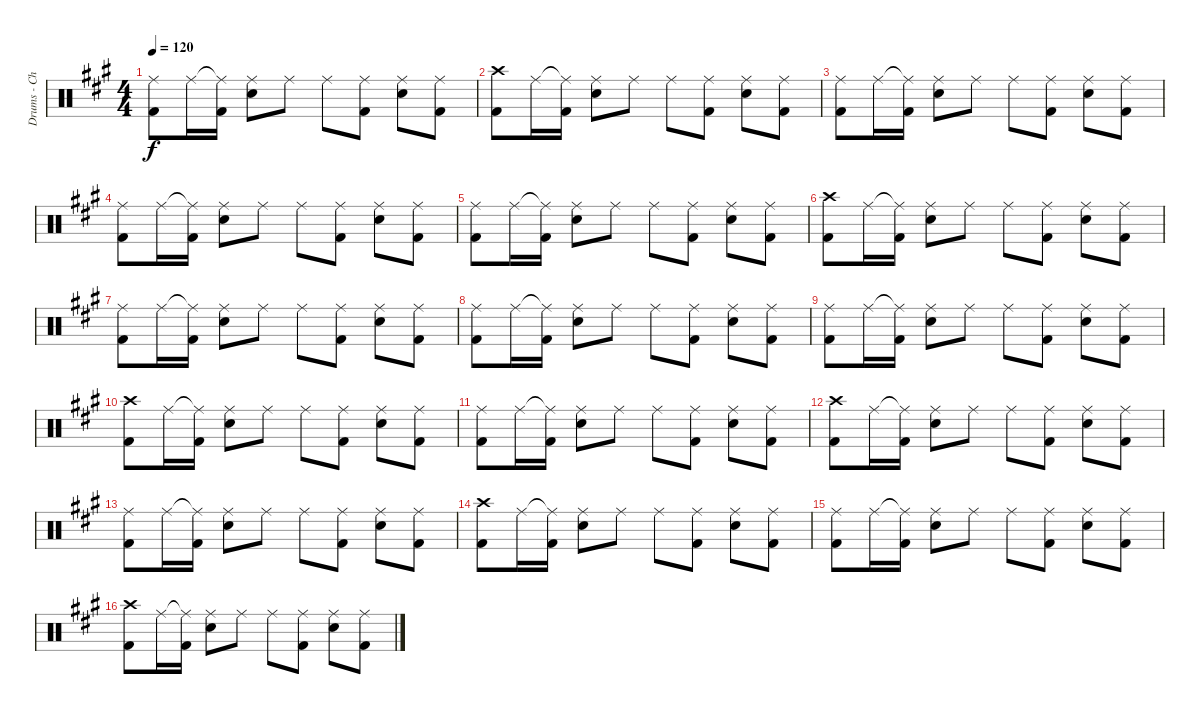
\track ("Drums - Chad S" "Drums - Ch") {instrument percussion}
\staff {score}
\articulation defaults
\ts (4 4)
\tempo 120
\clef neutral
\ks f#minor
("Ride (middle)" "Kick (hit) 2").8{dy f} "Ride (middle)".16 ("Ride (middle)"{t} "Kick (hit) 2").16 ("Ride (middle)" "Snare (hit) 2").8 "Ride (middle)".8 "Ride (middle)".8 ("Ride (middle)" "Kick (hit) 2").8 ("Ride (middle)" "Snare (hit) 2").8 ("Ride (middle)" "Kick (hit) 2").8 |
("Crash high (hit)" "Kick (hit) 2").8 "Ride (middle)".16 ("Ride (middle)"{t} "Kick (hit) 2").16 ("Ride (middle)" "Snare (hit) 2").8 "Ride (middle)".8 "Ride (middle)".8 ("Ride (middle)" "Kick (hit) 2").8 ("Ride (middle)" "Snare (hit) 2").8 ("Ride (middle)" "Kick (hit) 2").8 |
("Ride (middle)" "Kick (hit) 2").8 "Ride (middle)".16 ("Ride (middle)"{t} "Kick (hit) 2").16 ("Ride (middle)" "Snare (hit) 2").8 "Ride (middle)".8 "Ride (middle)".8 ("Ride (middle)" "Kick (hit) 2").8 ("Ride (middle)" "Snare (hit) 2").8 ("Ride (middle)" "Kick (hit) 2").8 |
("Ride (middle)" "Kick (hit) 2").8 "Ride (middle)".16 ("Ride (middle)"{t} "Kick (hit) 2").16 ("Ride (middle)" "Snare (hit) 2").8 "Ride (middle)".8 "Ride (middle)".8 ("Ride (middle)" "Kick (hit) 2").8 ("Ride (middle)" "Snare (hit) 2").8 ("Ride (middle)" "Kick (hit) 2").8 |
("Ride (middle)" "Kick (hit) 2").8 "Ride (middle)".16 ("Ride (middle)"{t} "Kick (hit) 2").16 ("Ride (middle)" "Snare (hit) 2").8 "Ride (middle)".8 "Ride (middle)".8 ("Ride (middle)" "Kick (hit) 2").8 ("Ride (middle)" "Snare (hit) 2").8 ("Ride (middle)" "Kick (hit) 2").8 |
("Crash high (hit)" "Kick (hit) 2").8 "Ride (middle)".16 ("Ride (middle)"{t} "Kick (hit) 2").16 ("Ride (middle)" "Snare (hit) 2").8 "Ride (middle)".8 "Ride (middle)".8 ("Ride (middle)" "Kick (hit) 2").8 ("Ride (middle)" "Snare (hit) 2").8 ("Ride (middle)" "Kick (hit) 2").8 |
("Ride (middle)" "Kick (hit) 2").8 "Ride (middle)".16 ("Ride (middle)"{t} "Kick (hit) 2").16 ("Ride (middle)" "Snare (hit) 2").8 "Ride (middle)".8 "Ride (middle)".8 ("Ride (middle)" "Kick (hit) 2").8 ("Ride (middle)" "Snare (hit) 2").8 ("Ride (middle)" "Kick (hit) 2").8 |
("Ride (middle)" "Kick (hit) 2").8 "Ride (middle)".16 ("Ride (middle)"{t} "Kick (hit) 2").16 ("Ride (middle)" "Snare (hit) 2").8 "Ride (middle)".8 "Ride (middle)".8 ("Ride (middle)" "Kick (hit) 2").8 ("Ride (middle)" "Snare (hit) 2").8 ("Ride (middle)" "Kick (hit) 2").8 |
("Ride (middle)" "Kick (hit) 2").8 "Ride (middle)".16 ("Ride (middle)"{t} "Kick (hit) 2").16 ("Ride (middle)" "Snare (hit) 2").8 "Ride (middle)".8 "Ride (middle)".8 ("Ride (middle)" "Kick (hit) 2").8 ("Ride (middle)" "Snare (hit) 2").8 ("Ride (middle)" "Kick (hit) 2").8 |
("Crash high (hit)" "Kick (hit) 2").8 "Ride (middle)".16 ("Ride (middle)"{t} "Kick (hit) 2").16 ("Ride (middle)" "Snare (hit) 2").8 "Ride (middle)".8 "Ride (middle)".8 ("Ride (middle)" "Kick (hit) 2").8 ("Ride (middle)" "Snare (hit) 2").8 ("Ride (middle)" "Kick (hit) 2").8 |
("Ride (middle)" "Kick (hit) 2").8 "Ride (middle)".16 ("Ride (middle)"{t} "Kick (hit) 2").16 ("Ride (middle)" "Snare (hit) 2").8 "Ride (middle)".8 "Ride (middle)".8 ("Ride (middle)" "Kick (hit) 2").8 ("Ride (middle)" "Snare (hit) 2").8 ("Ride (middle)" "Kick (hit) 2").8 |
("Crash high (hit)" "Kick (hit) 2").8 "Ride (middle)".16 ("Ride (middle)"{t} "Kick (hit) 2").16 ("Ride (middle)" "Snare (hit) 2").8 "Ride (middle)".8 "Ride (middle)".8 ("Ride (middle)" "Kick (hit) 2").8 ("Ride (middle)" "Snare (hit) 2").8 ("Ride (middle)" "Kick (hit) 2").8 |
("Ride (middle)" "Kick (hit) 2").8 "Ride (middle)".16 ("Ride (middle)"{t} "Kick (hit) 2").16 ("Ride (middle)" "Snare (hit) 2").8 "Ride (middle)".8 "Ride (middle)".8 ("Ride (middle)" "Kick (hit) 2").8 ("Ride (middle)" "Snare (hit) 2").8 ("Ride (middle)" "Kick (hit) 2").8 |
("Crash high (hit)" "Kick (hit) 2").8 "Ride (middle)".16 ("Ride (middle)"{t} "Kick (hit) 2").16 ("Ride (middle)" "Snare (hit) 2").8 "Ride (middle)".8 "Ride (middle)".8 ("Ride (middle)" "Kick (hit) 2").8 ("Ride (middle)" "Snare (hit) 2").8 ("Ride (middle)" "Kick (hit) 2").8 |
("Ride (middle)" "Kick (hit) 2").8 "Ride (middle)".16 ("Ride (middle)"{t} "Kick (hit) 2").16 ("Ride (middle)" "Snare (hit) 2").8 "Ride (middle)".8 "Ride (middle)".8 ("Ride (middle)" "Kick (hit) 2").8 ("Ride (middle)" "Snare (hit) 2").8 ("Ride (middle)" "Kick (hit) 2").8 |
("Crash high (hit)" "Kick (hit) 2").8 "Ride (middle)".16 ("Ride (middle)"{t} "Kick (hit) 2").16 ("Ride (middle)" "Snare (hit) 2").8 "Ride (middle)".8 "Ride (middle)".8 ("Ride (middle)" "Kick (hit) 2").8 ("Ride (middle)" "Snare (hit) 2").8 ("Ride (middle)" "Kick (hit) 2").8
